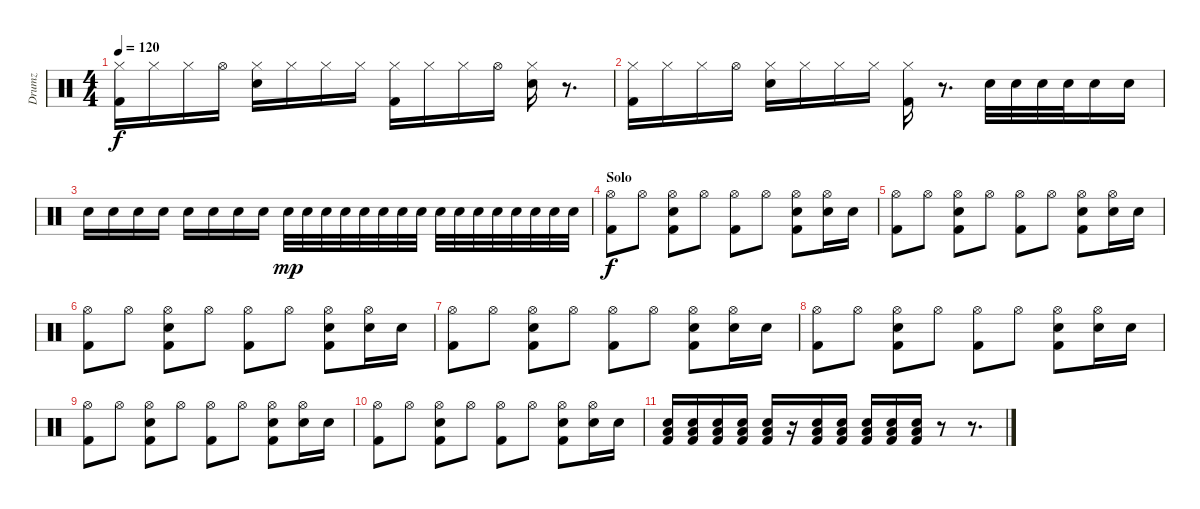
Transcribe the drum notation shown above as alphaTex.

\track ("Drumz" "Drumz") {instrument percussion}
\staff {score}
\articulation defaults
\ts (4 4)
\tempo 120
\clef neutral
\ks c
("Hi-Hat (closed)" "Kick (hit) 2").16{dy f} "Hi-Hat (closed)".16 "Hi-Hat (closed)".16 "Hi-Hat (open)".16 ("Hi-Hat (closed)" "Electric Snare (hit)").16 "Hi-Hat (closed)".16 "Hi-Hat (closed)".16 "Hi-Hat (closed)".16 ("Hi-Hat (closed)" "Kick (hit) 2").16 "Hi-Hat (closed)".16 "Hi-Hat (closed)".16 "Hi-Hat (open)".16 ("Hi-Hat (closed)" "Electric Snare (hit)").16 r.8{d} |
("Hi-Hat (closed)" "Kick (hit) 2").16 "Hi-Hat (closed)".16 "Hi-Hat (closed)".16 "Hi-Hat (open)".16 ("Hi-Hat (closed)" "Electric Snare (hit)").16 "Hi-Hat (closed)".16 "Hi-Hat (closed)".16 "Hi-Hat (closed)".16 ("Hi-Hat (closed)" "Kick (hit) 2").16 r.8{d} "Electric Snare (hit)".32 "Electric Snare (hit)".32 "Electric Snare (hit)".32 "Electric Snare (hit)".32 "Electric Snare (hit)".16 "Electric Snare (hit)".16 |
"Electric Snare (hit)".16 "Electric Snare (hit)".16 "Electric Snare (hit)".16 "Electric Snare (hit)".16 "Electric Snare (hit)".16 "Electric Snare (hit)".16 "Electric Snare (hit)".16 "Electric Snare (hit)".16 "Electric Snare (hit)".32{dy mp} "Electric Snare (hit)".32 "Electric Snare (hit)".32 "Electric Snare (hit)".32 "Electric Snare (hit)".32 "Electric Snare (hit)".32 "Electric Snare (hit)".32 "Electric Snare (hit)".32 "Electric Snare (hit)".32 "Electric Snare (hit)".32 "Electric Snare (hit)".32 "Electric Snare (hit)".32 "Electric Snare (hit)".32 "Electric Snare (hit)".32 "Electric Snare (hit)".32 "Electric Snare (hit)".32 |
\section ("" "Solo")
("Hi-Hat (open)" "Kick (hit) 2").8{dy f} "Hi-Hat (open)".8 ("Hi-Hat (open)" "Electric Snare (hit)" "Kick (hit) 2").8 "Hi-Hat (open)".8 ("Hi-Hat (open)" "Kick (hit) 2").8 "Hi-Hat (open)".8 ("Hi-Hat (open)" "Electric Snare (hit)" "Kick (hit) 2").8 ("Hi-Hat (open)" "Electric Snare (hit)").16 "Electric Snare (hit)".16 |
("Hi-Hat (open)" "Kick (hit) 2").8 "Hi-Hat (open)".8 ("Hi-Hat (open)" "Electric Snare (hit)" "Kick (hit) 2").8 "Hi-Hat (open)".8 ("Hi-Hat (open)" "Kick (hit) 2").8 "Hi-Hat (open)".8 ("Hi-Hat (open)" "Electric Snare (hit)" "Kick (hit) 2").8 ("Hi-Hat (open)" "Electric Snare (hit)").16 "Electric Snare (hit)".16 |
("Hi-Hat (open)" "Kick (hit) 2").8 "Hi-Hat (open)".8 ("Hi-Hat (open)" "Electric Snare (hit)" "Kick (hit) 2").8 "Hi-Hat (open)".8 ("Hi-Hat (open)" "Kick (hit) 2").8 "Hi-Hat (open)".8 ("Hi-Hat (open)" "Electric Snare (hit)" "Kick (hit) 2").8 ("Hi-Hat (open)" "Electric Snare (hit)").16 "Electric Snare (hit)".16 |
("Hi-Hat (open)" "Kick (hit) 2").8 "Hi-Hat (open)".8 ("Hi-Hat (open)" "Electric Snare (hit)" "Kick (hit) 2").8 "Hi-Hat (open)".8 ("Hi-Hat (open)" "Kick (hit) 2").8 "Hi-Hat (open)".8 ("Hi-Hat (open)" "Electric Snare (hit)" "Kick (hit) 2").8 ("Hi-Hat (open)" "Electric Snare (hit)").16 "Electric Snare (hit)".16 |
("Hi-Hat (open)" "Kick (hit) 2").8 "Hi-Hat (open)".8 ("Hi-Hat (open)" "Electric Snare (hit)" "Kick (hit) 2").8 "Hi-Hat (open)".8 ("Hi-Hat (open)" "Kick (hit) 2").8 "Hi-Hat (open)".8 ("Hi-Hat (open)" "Electric Snare (hit)" "Kick (hit) 2").8 ("Hi-Hat (open)" "Electric Snare (hit)").16 "Electric Snare (hit)".16 |
("Hi-Hat (open)" "Kick (hit) 2").8 "Hi-Hat (open)".8 ("Hi-Hat (open)" "Electric Snare (hit)" "Kick (hit) 2").8 "Hi-Hat (open)".8 ("Hi-Hat (open)" "Kick (hit) 2").8 "Hi-Hat (open)".8 ("Hi-Hat (open)" "Electric Snare (hit)" "Kick (hit) 2").8 ("Hi-Hat (open)" "Electric Snare (hit)").16 "Electric Snare (hit)".16 |
("Hi-Hat (open)" "Kick (hit) 2").8 "Hi-Hat (open)".8 ("Hi-Hat (open)" "Electric Snare (hit)" "Kick (hit) 2").8 "Hi-Hat (open)".8 ("Hi-Hat (open)" "Kick (hit) 2").8 "Hi-Hat (open)".8 ("Hi-Hat (open)" "Electric Snare (hit)" "Kick (hit) 2").8 ("Hi-Hat (open)" "Electric Snare (hit)").16 "Electric Snare (hit)".16 |
("Electric Snare (hit)" "Low Tom (hit)" "Kick (hit) 2").16 ("Electric Snare (hit)" "Low Tom (hit)" "Kick (hit) 2").16 ("Electric Snare (hit)" "Low Tom (hit)" "Kick (hit) 2").16 ("Electric Snare (hit)" "Low Tom (hit)" "Kick (hit) 2").16 ("Electric Snare (hit)" "Low Tom (hit)" "Kick (hit) 2").16 r.16 ("Electric Snare (hit)" "Low Tom (hit)" "Kick (hit) 2").16 ("Electric Snare (hit)" "Low Tom (hit)" "Kick (hit) 2").16 ("Electric Snare (hit)" "Low Tom (hit)" "Kick (hit) 2").16 ("Electric Snare (hit)" "Low Tom (hit)" "Kick (hit) 2").16 ("Electric Snare (hit)" "Low Tom (hit)" "Kick (hit) 2").16 r.8 r.8{d}
